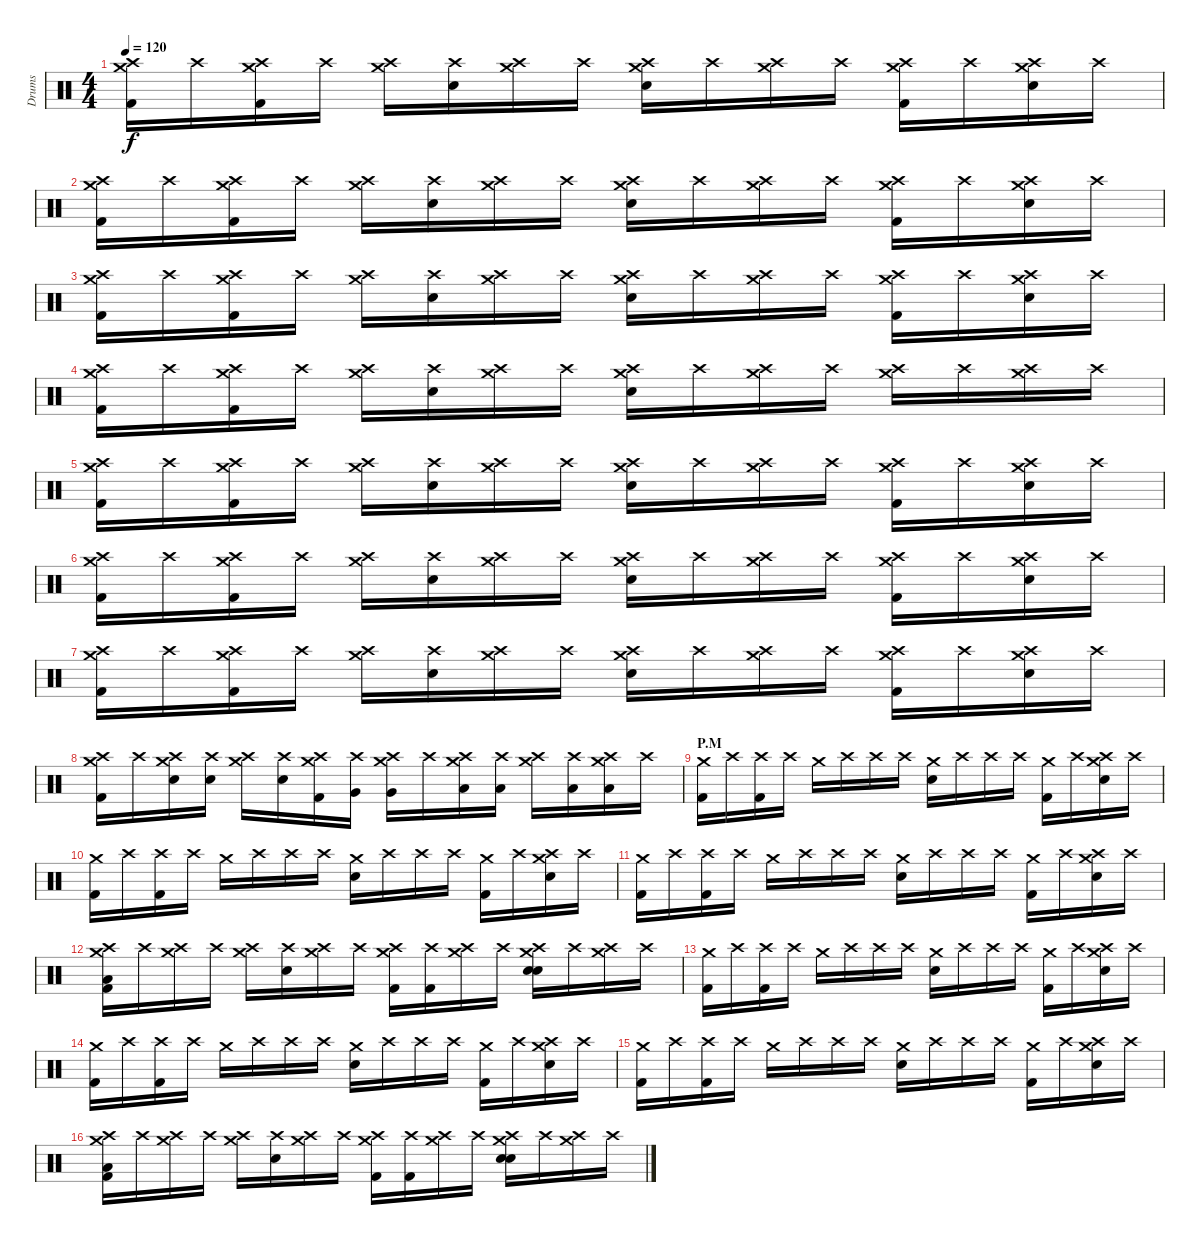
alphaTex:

\track ("Drums" "Drums") {instrument percussion}
\staff {score}
\articulation defaults
\ts (4 4)
\tempo 120
\clef neutral
\ks c
("Crash high (hit)" "Crash medium (hit)" "Kick (hit) 2").16{dy f} "Crash high (hit)"{x}.16 ("Crash high (hit)"{x} "Crash medium (hit)"{x} "Kick (hit) 2").16 "Crash high (hit)"{x}.16 ("Crash high (hit)" "Crash medium (hit)").16 ("Crash high (hit)"{x} "Snare (hit)"{x}).16 ("Crash high (hit)"{x} "Crash medium (hit)"{x}).16 "Crash high (hit)"{x}.16 ("Crash high (hit)" "Crash medium (hit)" "Electric Snare (hit)").16 "Crash high (hit)"{x}.16 ("Crash high (hit)"{x} "Crash medium (hit)"{x}).16 "Crash high (hit)"{x}.16 ("Crash high (hit)" "Crash medium (hit)" "Kick (hit) 2").16 "Crash high (hit)"{x}.16 ("Crash high (hit)"{x} "Crash medium (hit)"{x} "Electric Snare (hit)").16 "Crash high (hit)"{x}.16 |
("Crash high (hit)" "Crash medium (hit)" "Kick (hit) 2").16 "Crash high (hit)"{x}.16 ("Crash high (hit)"{x} "Crash medium (hit)"{x} "Kick (hit) 2").16 "Crash high (hit)"{x}.16 ("Crash high (hit)" "Crash medium (hit)").16 ("Crash high (hit)"{x} "Snare (hit)"{x}).16 ("Crash high (hit)"{x} "Crash medium (hit)"{x}).16 "Crash high (hit)"{x}.16 ("Crash high (hit)" "Crash medium (hit)" "Electric Snare (hit)").16 "Crash high (hit)"{x}.16 ("Crash high (hit)"{x} "Crash medium (hit)"{x}).16 "Crash high (hit)"{x}.16 ("Crash high (hit)" "Crash medium (hit)" "Kick (hit) 2").16 "Crash high (hit)"{x}.16 ("Crash high (hit)"{x} "Crash medium (hit)"{x} "Electric Snare (hit)").16 "Crash high (hit)"{x}.16 |
("Crash high (hit)" "Crash medium (hit)" "Kick (hit) 2").16 "Crash high (hit)"{x}.16 ("Crash high (hit)"{x} "Crash medium (hit)"{x} "Kick (hit) 2").16 "Crash high (hit)"{x}.16 ("Crash high (hit)" "Crash medium (hit)").16 ("Crash high (hit)"{x} "Snare (hit)"{x}).16 ("Crash high (hit)"{x} "Crash medium (hit)"{x}).16 "Crash high (hit)"{x}.16 ("Crash high (hit)" "Crash medium (hit)" "Electric Snare (hit)").16 "Crash high (hit)"{x}.16 ("Crash high (hit)"{x} "Crash medium (hit)"{x}).16 "Crash high (hit)"{x}.16 ("Crash high (hit)" "Crash medium (hit)" "Kick (hit) 2").16 "Crash high (hit)"{x}.16 ("Crash high (hit)"{x} "Crash medium (hit)"{x} "Electric Snare (hit)").16 "Crash high (hit)"{x}.16 |
("Crash high (hit)" "Crash medium (hit)" "Kick (hit) 2").16 "Crash high (hit)"{x}.16 ("Crash high (hit)"{x} "Crash medium (hit)"{x} "Kick (hit) 2").16 "Crash high (hit)"{x}.16 ("Crash high (hit)" "Crash medium (hit)").16 ("Crash high (hit)"{x} "Snare (hit)"{x}).16 ("Crash high (hit)"{x} "Crash medium (hit)"{x}).16 "Crash high (hit)"{x}.16 ("Crash high (hit)" "Crash medium (hit)" "Electric Snare (hit)").16 "Crash high (hit)"{x}.16 ("Crash high (hit)"{x} "Crash medium (hit)"{x}).16 "Crash high (hit)"{x}.16 ("Crash high (hit)" "Crash medium (hit)").16 "Crash high (hit)"{x}.16 ("Crash high (hit)"{x} "Crash medium (hit)"{x}).16 "Crash high (hit)"{x}.16 |
("Crash high (hit)" "Crash medium (hit)" "Kick (hit) 2").16 "Crash high (hit)"{x}.16 ("Crash high (hit)"{x} "Crash medium (hit)"{x} "Kick (hit) 2").16 "Crash high (hit)"{x}.16 ("Crash high (hit)" "Crash medium (hit)").16 ("Crash high (hit)"{x} "Snare (hit)"{x}).16 ("Crash high (hit)"{x} "Crash medium (hit)"{x}).16 "Crash high (hit)"{x}.16 ("Crash high (hit)" "Crash medium (hit)" "Electric Snare (hit)").16 "Crash high (hit)"{x}.16 ("Crash high (hit)"{x} "Crash medium (hit)"{x}).16 "Crash high (hit)"{x}.16 ("Crash high (hit)" "Crash medium (hit)" "Kick (hit) 2").16 "Crash high (hit)"{x}.16 ("Crash high (hit)"{x} "Crash medium (hit)"{x} "Electric Snare (hit)").16 "Crash high (hit)"{x}.16 |
("Crash high (hit)" "Crash medium (hit)" "Kick (hit) 2").16 "Crash high (hit)"{x}.16 ("Crash high (hit)"{x} "Crash medium (hit)"{x} "Kick (hit) 2").16 "Crash high (hit)"{x}.16 ("Crash high (hit)" "Crash medium (hit)").16 ("Crash high (hit)"{x} "Snare (hit)"{x}).16 ("Crash high (hit)"{x} "Crash medium (hit)"{x}).16 "Crash high (hit)"{x}.16 ("Crash high (hit)" "Crash medium (hit)" "Electric Snare (hit)").16 "Crash high (hit)"{x}.16 ("Crash high (hit)"{x} "Crash medium (hit)"{x}).16 "Crash high (hit)"{x}.16 ("Crash high (hit)" "Crash medium (hit)" "Kick (hit) 2").16 "Crash high (hit)"{x}.16 ("Crash high (hit)"{x} "Crash medium (hit)"{x} "Electric Snare (hit)").16 "Crash high (hit)"{x}.16 |
("Crash high (hit)" "Crash medium (hit)" "Kick (hit) 2").16 "Crash high (hit)"{x}.16 ("Crash high (hit)"{x} "Crash medium (hit)"{x} "Kick (hit) 2").16 "Crash high (hit)"{x}.16 ("Crash high (hit)" "Crash medium (hit)").16 ("Crash high (hit)"{x} "Snare (hit)"{x}).16 ("Crash high (hit)"{x} "Crash medium (hit)"{x}).16 "Crash high (hit)"{x}.16 ("Crash high (hit)" "Crash medium (hit)" "Electric Snare (hit)").16 "Crash high (hit)"{x}.16 ("Crash high (hit)"{x} "Crash medium (hit)"{x}).16 "Crash high (hit)"{x}.16 ("Crash high (hit)" "Crash medium (hit)" "Kick (hit) 2").16 "Crash high (hit)"{x}.16 ("Crash high (hit)"{x} "Crash medium (hit)"{x} "Electric Snare (hit)").16 "Crash high (hit)"{x}.16 |
("Crash high (hit)" "Crash medium (hit)" "Kick (hit) 2").16 "Crash high (hit)"{x}.16 ("Crash high (hit)"{x} "Crash medium (hit)"{x} "Electric Snare (hit)").16 ("Crash high (hit)"{x} "Electric Snare (hit)").16 ("Crash high (hit)" "Crash medium (hit)").16 ("Crash high (hit)"{x} "Snare (hit)"{x}).16 ("Crash high (hit)"{x} "Crash medium (hit)"{x} "Kick (hit) 2").16 ("Crash high (hit)"{x} "Very Low Tom (hit)").16 ("Crash high (hit)" "Crash medium (hit)" "Very Low Tom (hit)").16 "Crash high (hit)"{x}.16 ("Crash high (hit)"{x} "Crash medium (hit)"{x} "Low Tom (hit)").16 ("Crash high (hit)"{x} "Low Tom (hit)").16 ("Crash high (hit)" "Crash medium (hit)").16 ("Crash high (hit)"{x} "Low Floor Tom (hit)").16 ("Crash high (hit)"{x} "Crash medium (hit)"{x} "Low Floor Tom (hit)").16 "Crash high (hit)"{x}.16 |
\section ("" "P.M")
("Crash medium (hit)" "Kick (hit) 2").16 "Crash high (hit)"{x}.16 ("Crash high (hit)"{x} "Kick (hit) 2").16 "Crash high (hit)"{x}.16 "Crash medium (hit)".16 "Crash high (hit)"{x}.16 "Crash high (hit)"{x}.16 "Crash high (hit)"{x}.16 ("Crash medium (hit)" "Electric Snare (hit)").16 "Crash high (hit)"{x}.16 "Crash high (hit)"{x}.16 "Crash high (hit)"{x}.16 ("Crash medium (hit)" "Kick (hit) 2").16 "Crash high (hit)"{x}.16 ("Crash high (hit)"{x} "Crash medium (hit)"{x} "Electric Snare (hit)").16 "Crash high (hit)"{x}.16 |
("Crash medium (hit)" "Kick (hit) 2").16 "Crash high (hit)"{x}.16 ("Crash high (hit)"{x} "Kick (hit) 2").16 "Crash high (hit)"{x}.16 "Crash medium (hit)".16 "Crash high (hit)"{x}.16 "Crash high (hit)"{x}.16 "Crash high (hit)"{x}.16 ("Crash medium (hit)" "Electric Snare (hit)").16 "Crash high (hit)"{x}.16 "Crash high (hit)"{x}.16 "Crash high (hit)"{x}.16 ("Crash medium (hit)" "Kick (hit) 2").16 "Crash high (hit)"{x}.16 ("Crash high (hit)"{x} "Crash medium (hit)"{x} "Electric Snare (hit)").16 "Crash high (hit)"{x}.16 |
("Crash medium (hit)" "Kick (hit) 2").16 "Crash high (hit)"{x}.16 ("Crash high (hit)"{x} "Kick (hit) 2").16 "Crash high (hit)"{x}.16 "Crash medium (hit)".16 "Crash high (hit)"{x}.16 "Crash high (hit)"{x}.16 "Crash high (hit)"{x}.16 ("Crash medium (hit)" "Electric Snare (hit)").16 "Crash high (hit)"{x}.16 "Crash high (hit)"{x}.16 "Crash high (hit)"{x}.16 ("Crash medium (hit)" "Kick (hit) 2").16 "Crash high (hit)"{x}.16 ("Crash high (hit)"{x} "Crash medium (hit)"{x} "Electric Snare (hit)").16 "Crash high (hit)"{x}.16 |
("Crash high (hit)" "Crash medium (hit)" "Low Tom (hit)" "Kick (hit) 2").16 "Crash high (hit)"{x}.16 ("Crash high (hit)"{x} "Crash medium (hit)"{x}).16 "Crash high (hit)"{x}.16 ("Crash high (hit)" "Crash medium (hit)").16 ("Crash high (hit)"{x} "Snare (hit)"{x}).16 ("Crash high (hit)"{x} "Crash medium (hit)"{x}).16 "Crash high (hit)"{x}.16 ("Crash high (hit)" "Crash medium (hit)" "Kick (hit) 2").16 ("Crash high (hit)"{x} "Kick (hit) 2").16 ("Crash high (hit)"{x} "Crash medium (hit)"{x}).16 "Crash high (hit)"{x}.16 ("Crash high (hit)" "Crash medium (hit)" "Electric Snare (hit)" "Snare (hit) 2").16 "Crash high (hit)"{x}.16 ("Crash high (hit)"{x} "Crash medium (hit)"{x}).16 "Crash high (hit)"{x}.16 |
("Crash medium (hit)" "Kick (hit) 2").16 "Crash high (hit)"{x}.16 ("Crash high (hit)"{x} "Kick (hit) 2").16 "Crash high (hit)"{x}.16 "Crash medium (hit)".16 "Crash high (hit)"{x}.16 "Crash high (hit)"{x}.16 "Crash high (hit)"{x}.16 ("Crash medium (hit)" "Electric Snare (hit)").16 "Crash high (hit)"{x}.16 "Crash high (hit)"{x}.16 "Crash high (hit)"{x}.16 ("Crash medium (hit)" "Kick (hit) 2").16 "Crash high (hit)"{x}.16 ("Crash high (hit)"{x} "Crash medium (hit)"{x} "Electric Snare (hit)").16 "Crash high (hit)"{x}.16 |
("Crash medium (hit)" "Kick (hit) 2").16 "Crash high (hit)"{x}.16 ("Crash high (hit)"{x} "Kick (hit) 2").16 "Crash high (hit)"{x}.16 "Crash medium (hit)".16 "Crash high (hit)"{x}.16 "Crash high (hit)"{x}.16 "Crash high (hit)"{x}.16 ("Crash medium (hit)" "Electric Snare (hit)").16 "Crash high (hit)"{x}.16 "Crash high (hit)"{x}.16 "Crash high (hit)"{x}.16 ("Crash medium (hit)" "Kick (hit) 2").16 "Crash high (hit)"{x}.16 ("Crash high (hit)"{x} "Crash medium (hit)"{x} "Electric Snare (hit)").16 "Crash high (hit)"{x}.16 |
("Crash medium (hit)" "Kick (hit) 2").16 "Crash high (hit)"{x}.16 ("Crash high (hit)"{x} "Kick (hit) 2").16 "Crash high (hit)"{x}.16 "Crash medium (hit)".16 "Crash high (hit)"{x}.16 "Crash high (hit)"{x}.16 "Crash high (hit)"{x}.16 ("Crash medium (hit)" "Electric Snare (hit)").16 "Crash high (hit)"{x}.16 "Crash high (hit)"{x}.16 "Crash high (hit)"{x}.16 ("Crash medium (hit)" "Kick (hit) 2").16 "Crash high (hit)"{x}.16 ("Crash high (hit)"{x} "Crash medium (hit)"{x} "Electric Snare (hit)").16 "Crash high (hit)"{x}.16 |
("Crash high (hit)" "Crash medium (hit)" "Low Tom (hit)" "Kick (hit) 2").16 "Crash high (hit)"{x}.16 ("Crash high (hit)"{x} "Crash medium (hit)"{x}).16 "Crash high (hit)"{x}.16 ("Crash high (hit)" "Crash medium (hit)").16 ("Crash high (hit)"{x} "Snare (hit)"{x}).16 ("Crash high (hit)"{x} "Crash medium (hit)"{x}).16 "Crash high (hit)"{x}.16 ("Crash high (hit)" "Crash medium (hit)" "Kick (hit) 2").16 ("Crash high (hit)"{x} "Kick (hit) 2").16 ("Crash high (hit)"{x} "Crash medium (hit)"{x}).16 "Crash high (hit)"{x}.16 ("Crash high (hit)" "Crash medium (hit)" "Electric Snare (hit)" "Snare (hit) 2").16 "Crash high (hit)"{x}.16 ("Crash high (hit)"{x} "Crash medium (hit)"{x}).16 "Crash high (hit)"{x}.16
